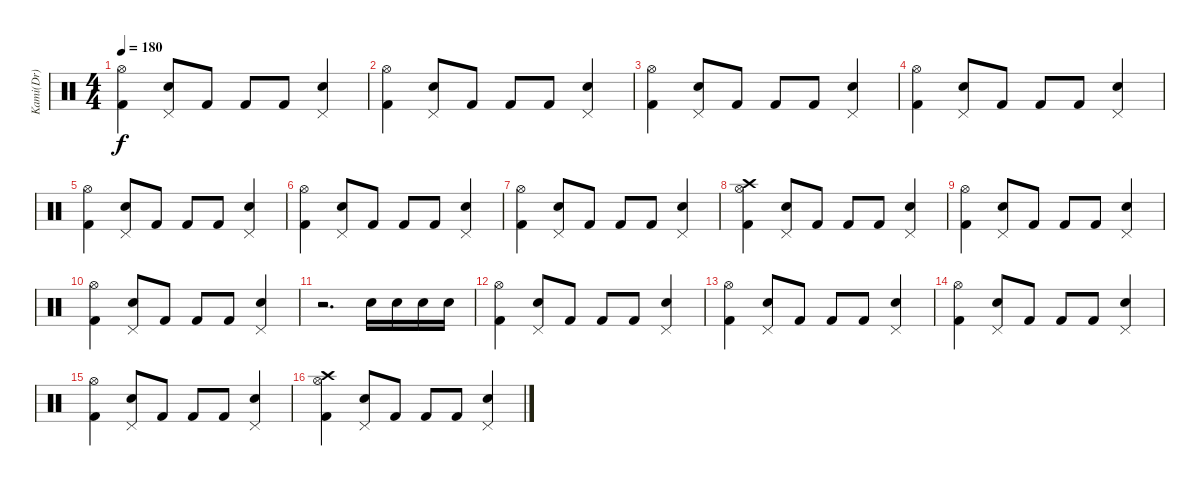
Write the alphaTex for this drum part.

\track ("Kami(Dr)" "Kami(Dr)") {instrument percussion}
\staff {score}
\articulation defaults
\ts (4 4)
\tempo 180
\clef neutral
\ks c
("Kick (hit) 2" "Hi-Hat (open)").4{dy f} ("Electric Snare (hit)" "Pedal Hi-Hat (hit)").8 "Kick (hit) 2".8 "Kick (hit) 2".8 "Kick (hit) 2".8 ("Electric Snare (hit)" "Pedal Hi-Hat (hit)").4 |
("Kick (hit) 2" "Hi-Hat (open)").4 ("Electric Snare (hit)" "Pedal Hi-Hat (hit)").8 "Kick (hit) 2".8 "Kick (hit) 2".8 "Kick (hit) 2".8 ("Electric Snare (hit)" "Pedal Hi-Hat (hit)").4 |
("Kick (hit) 2" "Hi-Hat (open)").4 ("Electric Snare (hit)" "Pedal Hi-Hat (hit)").8 "Kick (hit) 2".8 "Kick (hit) 2".8 "Kick (hit) 2".8 ("Electric Snare (hit)" "Pedal Hi-Hat (hit)").4 |
("Kick (hit) 2" "Hi-Hat (open)").4 ("Electric Snare (hit)" "Pedal Hi-Hat (hit)").8 "Kick (hit) 2".8 "Kick (hit) 2".8 "Kick (hit) 2".8 ("Electric Snare (hit)" "Pedal Hi-Hat (hit)").4 |
("Kick (hit) 2" "Hi-Hat (open)").4 ("Electric Snare (hit)" "Pedal Hi-Hat (hit)").8 "Kick (hit) 2".8 "Kick (hit) 2".8 "Kick (hit) 2".8 ("Electric Snare (hit)" "Pedal Hi-Hat (hit)").4 |
("Kick (hit) 2" "Hi-Hat (open)").4 ("Electric Snare (hit)" "Pedal Hi-Hat (hit)").8 "Kick (hit) 2".8 "Kick (hit) 2".8 "Kick (hit) 2".8 ("Electric Snare (hit)" "Pedal Hi-Hat (hit)").4 |
("Kick (hit) 2" "Hi-Hat (open)").4 ("Electric Snare (hit)" "Pedal Hi-Hat (hit)").8 "Kick (hit) 2".8 "Kick (hit) 2".8 "Kick (hit) 2".8 ("Electric Snare (hit)" "Pedal Hi-Hat (hit)").4 |
("Kick (hit) 2" "Hi-Hat (open)" "Crash high (hit)").4 ("Metronome (bell)" "Pedal Hi-Hat (hit)").8 "Kick (hit) 2".8 "Kick (hit) 2".8 "Kick (hit) 2".8 ("Metronome (bell)" "Pedal Hi-Hat (hit)").4 |
("Kick (hit) 2" "Hi-Hat (open)").4 ("Electric Snare (hit)" "Pedal Hi-Hat (hit)").8 "Kick (hit) 2".8 "Kick (hit) 2".8 "Kick (hit) 2".8 ("Electric Snare (hit)" "Pedal Hi-Hat (hit)").4 |
("Kick (hit) 2" "Hi-Hat (open)").4 ("Electric Snare (hit)" "Pedal Hi-Hat (hit)").8 "Kick (hit) 2".8 "Kick (hit) 2".8 "Kick (hit) 2".8 ("Electric Snare (hit)" "Pedal Hi-Hat (hit)").4 |
r.2{d} "Electric Snare (hit)".16 "Electric Snare (hit)".16 "Electric Snare (hit)".16 "Electric Snare (hit)".16 |
("Kick (hit) 2" "Hi-Hat (open)").4 ("Electric Snare (hit)" "Pedal Hi-Hat (hit)").8 "Kick (hit) 2".8 "Kick (hit) 2".8 "Kick (hit) 2".8 ("Electric Snare (hit)" "Pedal Hi-Hat (hit)").4 |
("Kick (hit) 2" "Hi-Hat (open)").4 ("Electric Snare (hit)" "Pedal Hi-Hat (hit)").8 "Kick (hit) 2".8 "Kick (hit) 2".8 "Kick (hit) 2".8 ("Electric Snare (hit)" "Pedal Hi-Hat (hit)").4 |
("Kick (hit) 2" "Hi-Hat (open)").4 ("Electric Snare (hit)" "Pedal Hi-Hat (hit)").8 "Kick (hit) 2".8 "Kick (hit) 2".8 "Kick (hit) 2".8 ("Electric Snare (hit)" "Pedal Hi-Hat (hit)").4 |
("Kick (hit) 2" "Hi-Hat (open)").4 ("Electric Snare (hit)" "Pedal Hi-Hat (hit)").8 "Kick (hit) 2".8 "Kick (hit) 2".8 "Kick (hit) 2".8 ("Electric Snare (hit)" "Pedal Hi-Hat (hit)").4 |
("Kick (hit) 2" "Hi-Hat (open)" "Crash high (hit)").4 ("Metronome (bell)" "Pedal Hi-Hat (hit)").8 "Kick (hit) 2".8 "Kick (hit) 2".8 "Kick (hit) 2".8 ("Metronome (bell)" "Pedal Hi-Hat (hit)").4
